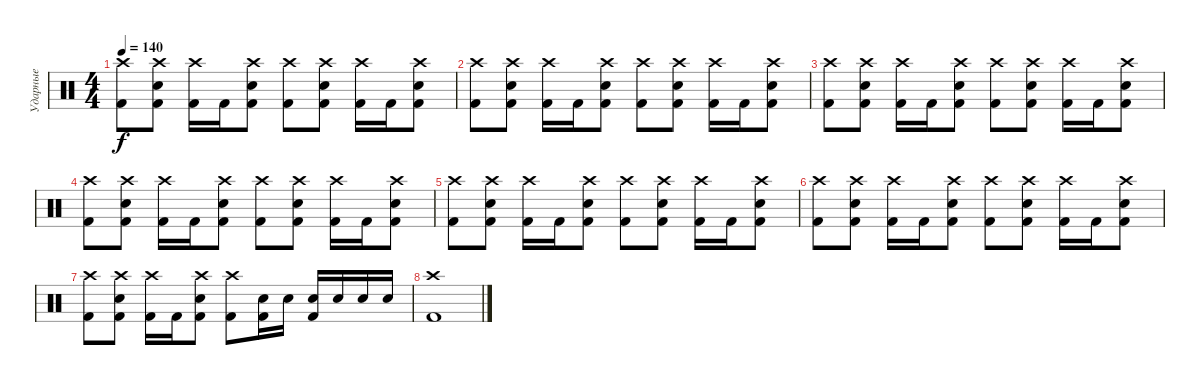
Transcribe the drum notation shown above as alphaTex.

\track ("Ударные" "Ударные") {instrument percussion}
\staff {score}
\articulation defaults
\ts (4 4)
\tempo 140
\clef neutral
\ks c
("Crash high (hit)" "Kick (hit) 2").8{dy f} ("Crash high (hit)" "Electric Snare (hit)" "Kick (hit) 2").8 ("Crash high (hit)" "Kick (hit) 2").16 "Kick (hit) 2".16 ("Crash high (hit)" "Electric Snare (hit)" "Kick (hit) 2").8 ("Crash high (hit)" "Kick (hit) 2").8 ("Crash high (hit)" "Electric Snare (hit)" "Kick (hit) 2").8 ("Crash high (hit)" "Kick (hit) 2").16 "Kick (hit) 2".16 ("Crash high (hit)" "Electric Snare (hit)" "Kick (hit) 2").8 |
("Crash high (hit)" "Kick (hit) 2").8 ("Crash high (hit)" "Electric Snare (hit)" "Kick (hit) 2").8 ("Crash high (hit)" "Kick (hit) 2").16 "Kick (hit) 2".16 ("Crash high (hit)" "Electric Snare (hit)" "Kick (hit) 2").8 ("Crash high (hit)" "Kick (hit) 2").8 ("Crash high (hit)" "Electric Snare (hit)" "Kick (hit) 2").8 ("Crash high (hit)" "Kick (hit) 2").16 "Kick (hit) 2".16 ("Crash high (hit)" "Electric Snare (hit)" "Kick (hit) 2").8 |
("Crash high (hit)" "Kick (hit) 2").8 ("Crash high (hit)" "Electric Snare (hit)" "Kick (hit) 2").8 ("Crash high (hit)" "Kick (hit) 2").16 "Kick (hit) 2".16 ("Crash high (hit)" "Electric Snare (hit)" "Kick (hit) 2").8 ("Crash high (hit)" "Kick (hit) 2").8 ("Crash high (hit)" "Electric Snare (hit)" "Kick (hit) 2").8 ("Crash high (hit)" "Kick (hit) 2").16 "Kick (hit) 2".16 ("Crash high (hit)" "Electric Snare (hit)" "Kick (hit) 2").8 |
("Crash high (hit)" "Kick (hit) 2").8 ("Crash high (hit)" "Electric Snare (hit)" "Kick (hit) 2").8 ("Crash high (hit)" "Kick (hit) 2").16 "Kick (hit) 2".16 ("Crash high (hit)" "Electric Snare (hit)" "Kick (hit) 2").8 ("Crash high (hit)" "Kick (hit) 2").8 ("Crash high (hit)" "Electric Snare (hit)" "Kick (hit) 2").8 ("Crash high (hit)" "Kick (hit) 2").16 "Kick (hit) 2".16 ("Crash high (hit)" "Electric Snare (hit)" "Kick (hit) 2").8 |
("Crash high (hit)" "Kick (hit) 2").8 ("Crash high (hit)" "Electric Snare (hit)" "Kick (hit) 2").8 ("Crash high (hit)" "Kick (hit) 2").16 "Kick (hit) 2".16 ("Crash high (hit)" "Electric Snare (hit)" "Kick (hit) 2").8 ("Crash high (hit)" "Kick (hit) 2").8 ("Crash high (hit)" "Electric Snare (hit)" "Kick (hit) 2").8 ("Crash high (hit)" "Kick (hit) 2").16 "Kick (hit) 2".16 ("Crash high (hit)" "Electric Snare (hit)" "Kick (hit) 2").8 |
("Crash high (hit)" "Kick (hit) 2").8 ("Crash high (hit)" "Electric Snare (hit)" "Kick (hit) 2").8 ("Crash high (hit)" "Kick (hit) 2").16 "Kick (hit) 2".16 ("Crash high (hit)" "Electric Snare (hit)" "Kick (hit) 2").8 ("Crash high (hit)" "Kick (hit) 2").8 ("Crash high (hit)" "Electric Snare (hit)" "Kick (hit) 2").8 ("Crash high (hit)" "Kick (hit) 2").16 "Kick (hit) 2".16 ("Crash high (hit)" "Electric Snare (hit)" "Kick (hit) 2").8 |
("Crash high (hit)" "Kick (hit) 2").8 ("Crash high (hit)" "Electric Snare (hit)" "Kick (hit) 2").8 ("Crash high (hit)" "Kick (hit) 2").16 "Kick (hit) 2".16 ("Crash high (hit)" "Electric Snare (hit)" "Kick (hit) 2").8 ("Crash high (hit)" "Kick (hit) 2").8 ("Electric Snare (hit)" "Kick (hit) 2").16 "Electric Snare (hit)".16 ("Electric Snare (hit)" "Kick (hit) 2").16 "Electric Snare (hit)".16 "Electric Snare (hit)".16 "Electric Snare (hit)".16 |
("Crash high (hit)" "Kick (hit) 2").1
